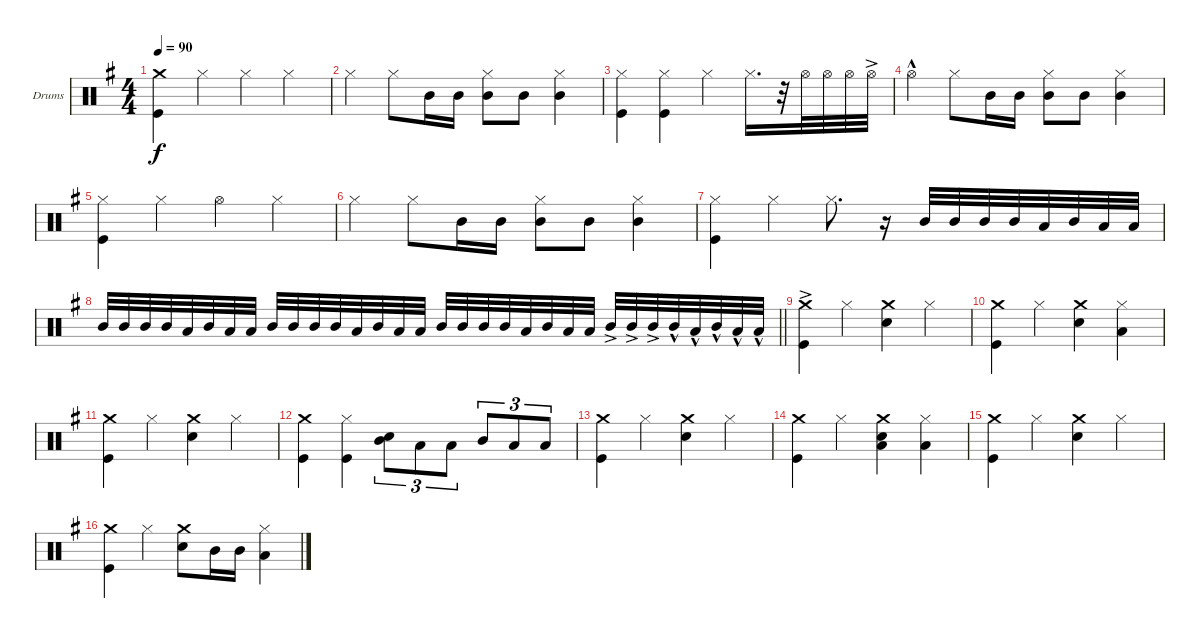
\bracketExtendMode groupsimilarinstruments
\firstSystemTrackNameOrientation horizontal
\otherSystemsTrackNameOrientation horizontal
\track ("Drumkit" "Drums") {instrument percussion}
\staff {score}
\articulation defaults
\ts (4 4)
\tempo 90
\clef neutral
\ks eminor
("Crash medium (hit)" "Kick (hit)").4{dy f} "Hi-Hat (closed)".4 "Hi-Hat (closed)".4 "Hi-Hat (closed)".4 |
"Hi-Hat (closed)".4 "Hi-Hat (closed)".8 "Mid Tom (hit)".16 "Mid Tom (hit)".16 ("Hi-Hat (closed)" "Mid Tom (hit)").8 "Mid Tom (hit)".8 ("Hi-Hat (closed)" "Mid Tom (hit)").4 |
("Hi-Hat (closed)" "Kick (hit)").4 ("Hi-Hat (closed)" "Kick (hit)").4 "Hi-Hat (closed)".4 "Hi-Hat (closed)".16{d} r.32 "Hi-Hat (open)".32 "Hi-Hat (open)".32 "Hi-Hat (open)".32 "Hi-Hat (open)"{ac}.32 |
"Hi-Hat (open)"{hac}.4 "Hi-Hat (closed)".8 "Mid Tom (hit)".16 "Mid Tom (hit)".16 ("Hi-Hat (closed)" "Mid Tom (hit)").8 "Mid Tom (hit)".8 ("Hi-Hat (closed)" "Mid Tom (hit)").4 |
("Hi-Hat (closed)" "Kick (hit)").4 "Hi-Hat (closed)".4 "Hi-Hat (open)".4 "Hi-Hat (closed)".4 |
"Hi-Hat (closed)".4 "Hi-Hat (closed)".8 "Mid Tom (hit)".16 "Mid Tom (hit)".16 ("Hi-Hat (closed)" "Mid Tom (hit)").8 "Mid Tom (hit)".8 ("Hi-Hat (closed)" "Mid Tom (hit)").4 |
("Hi-Hat (closed)" "Kick (hit)").4 "Hi-Hat (closed)".4 "Hi-Hat (closed)".8{d} r.16 "Mid Tom (hit)".32 "Mid Tom (hit)".32 "Mid Tom (hit)".32 "Mid Tom (hit)".32 "Low Tom (hit)".32 "Mid Tom (hit)".32 "Low Tom (hit)".32 "Low Tom (hit)".32 |
\barLineRight lightlight "Mid Tom (hit)".32 "Mid Tom (hit)".32 "Mid Tom (hit)".32 "Mid Tom (hit)".32 "Low Tom (hit)".32 "Mid Tom (hit)".32 "Low Tom (hit)".32 "Low Tom (hit)".32 "Mid Tom (hit)".32 "Mid Tom (hit)".32 "Mid Tom (hit)".32 "Mid Tom (hit)".32 "Low Tom (hit)".32 "Mid Tom (hit)".32 "Low Tom (hit)".32 "Low Tom (hit)".32 "Mid Tom (hit)".32 "Mid Tom (hit)".32 "Mid Tom (hit)".32 "Mid Tom (hit)".32 "Low Tom (hit)".32 "Mid Tom (hit)".32 "Low Tom (hit)".32 "Low Tom (hit)".32 "Mid Tom (hit)"{ac}.32 "Mid Tom (hit)"{ac}.32 "Mid Tom (hit)"{ac}.32 "Mid Tom (hit)"{hac}.32 "Low Tom (hit)"{hac}.32 "Mid Tom (hit)"{hac}.32 "Low Tom (hit)"{hac}.32 "Low Tom (hit)"{hac}.32
|
("Crash medium (hit)"{ac} "Kick (hit)"{ac}).4 "Hi-Hat (closed)".4 ("Crash medium (hit)" "Snare (hit) 2").4 "Hi-Hat (closed)".4 |
("Crash medium (hit)" "Kick (hit)").4 "Hi-Hat (closed)".4 ("Crash medium (hit)" "Snare (hit) 2").4 ("Hi-Hat (closed)" "Low Tom (hit)").4 |
("Crash medium (hit)" "Kick (hit)").4 "Hi-Hat (closed)".4 ("Crash medium (hit)" "Snare (hit) 2").4 "Hi-Hat (closed)".4 |
("Crash medium (hit)" "Kick (hit)").4 ("Hi-Hat (closed)" "Kick (hit)").4 ("Mid Tom (hit)" "Snare (hit) 2").8{tu (3 2)} "Low Tom (hit)".8{tu (3 2)} "Low Tom (hit)".8{tu (3 2)} "Mid Tom (hit)".8{tu (3 2)} "Low Tom (hit)".8{tu (3 2)} "Low Tom (hit)".8{tu (3 2)} |
("Crash medium (hit)" "Kick (hit)").4 "Hi-Hat (closed)".4 ("Crash medium (hit)" "Snare (hit) 2").4 "Hi-Hat (closed)".4 |
("Crash medium (hit)" "Kick (hit)").4 "Hi-Hat (closed)".4 ("Crash medium (hit)" "Low Tom (hit)" "Snare (hit) 2").4 ("Hi-Hat (closed)" "Low Tom (hit)").4 |
("Crash medium (hit)" "Kick (hit)").4 "Hi-Hat (closed)".4 ("Crash medium (hit)" "Snare (hit) 2").4 "Hi-Hat (closed)".4 |
("Crash medium (hit)" "Kick (hit)").4 "Hi-Hat (closed)".4 ("Crash medium (hit)" "Snare (hit) 2").8 "Mid Tom (hit)".16 "Mid Tom (hit)".16 ("Hi-Hat (closed)" "Low Tom (hit)").4
